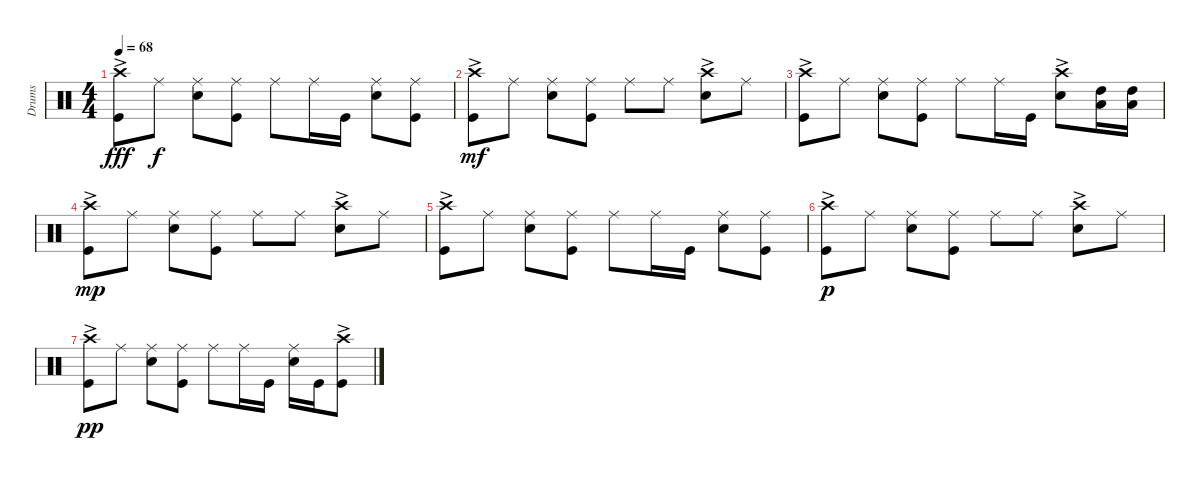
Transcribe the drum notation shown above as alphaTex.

\track ("Drums" "Drums") {instrument percussion}
\staff {score}
\articulation defaults
\ts (4 4)
\tempo 68
\clef neutral
\ks c
("Crash high (hit)"{ac} "Kick (hit)").8{dy fff} "Ride (middle)".8{dy f} ("Ride (middle)" "Snare (hit) 2").8 ("Ride (middle)" "Kick (hit)").8 "Ride (middle)".8 "Ride (middle)".16 "Kick (hit)".16 ("Ride (middle)" "Snare (hit) 2").8 ("Ride (middle)" "Kick (hit)").8 |
("Crash high (hit)"{ac} "Kick (hit)").8{dy mf} "Ride (middle)".8 ("Ride (middle)" "Snare (hit) 2").8 ("Ride (middle)" "Kick (hit)").8 "Ride (middle)".8 "Ride (middle)".8 ("Crash high (hit)"{ac} "Snare (hit) 2").8 "Ride (middle)".8 |
("Crash high (hit)"{ac} "Kick (hit)").8 "Ride (middle)".8 ("Ride (middle)" "Snare (hit) 2").8 ("Ride (middle)" "Kick (hit)").8 "Ride (middle)".8 "Ride (middle)".16 "Kick (hit)".16 ("Crash high (hit)"{ac} "Snare (hit) 2").8 ("High Tom (hit)" "Low Tom (hit)").16 ("High Tom (hit)" "Low Tom (hit)").16 |
("Crash high (hit)"{ac} "Kick (hit)").8{dy mp} "Ride (middle)".8 ("Ride (middle)" "Snare (hit) 2").8 ("Ride (middle)" "Kick (hit)").8 "Ride (middle)".8 "Ride (middle)".8 ("Crash high (hit)"{ac} "Snare (hit) 2").8 "Ride (middle)".8 |
("Crash high (hit)"{ac} "Kick (hit)").8 "Ride (middle)".8 ("Ride (middle)" "Snare (hit) 2").8 ("Ride (middle)" "Kick (hit)").8 "Ride (middle)".8 "Ride (middle)".16 "Kick (hit)".16 ("Ride (middle)" "Snare (hit) 2").8 ("Ride (middle)" "Kick (hit)").8 |
("Crash high (hit)"{ac} "Kick (hit)").8{dy p} "Ride (middle)".8 ("Ride (middle)" "Snare (hit) 2").8 ("Ride (middle)" "Kick (hit)").8 "Ride (middle)".8 "Ride (middle)".8 ("Crash high (hit)"{ac} "Snare (hit) 2").8 "Ride (middle)".8 |
("Crash high (hit)"{ac} "Kick (hit)").8{dy pp} "Ride (middle)".8 ("Ride (middle)" "Snare (hit) 2").8 ("Ride (middle)" "Kick (hit)").8 "Ride (middle)".8 "Ride (middle)".16 "Kick (hit)".16 ("Ride (middle)" "Snare (hit) 2").16 "Kick (hit)".16 ("Crash high (hit)"{ac} "Kick (hit)").8
